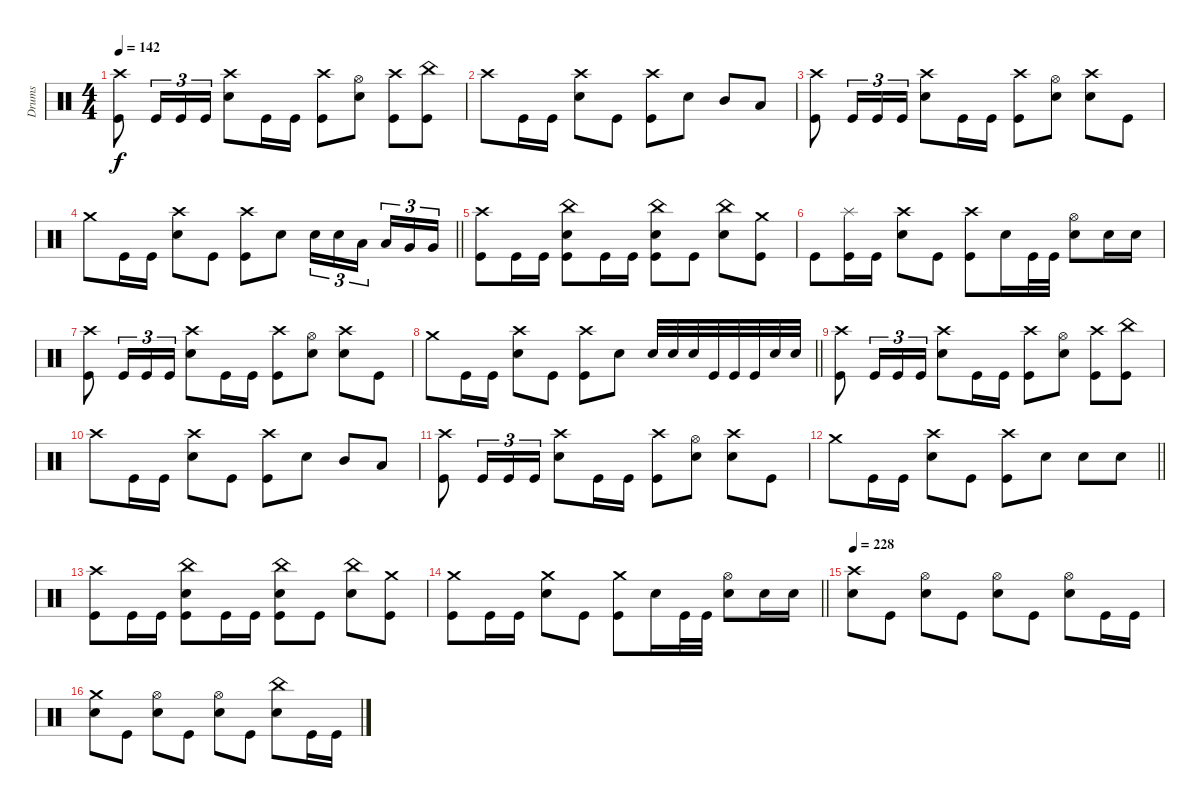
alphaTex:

\track ("Drums" "Drums") {instrument percussion}
\staff
\articulation defaults
\ts (4 4)
\section ("" "")
\tempo 142
\clef neutral
\ks c
("Crash high (hit)" "Kick (hit)").8{dy f} "Kick (hit)".16{tu (3 2)} "Kick (hit)".16{tu (3 2)} "Kick (hit)".16{tu (3 2)} ("Crash high (hit)" "Electric Snare (hit)").8 "Kick (hit)".16 "Kick (hit)".16 ("Crash high (hit)" "Kick (hit)").8 ("Hi-Hat (open)" "Electric Snare (hit)").8 ("Crash high (hit)" "Kick (hit)").8 ("China (hit)" "Kick (hit)").8 |
"Crash high (hit)".8 "Kick (hit)".16 "Kick (hit)".16 ("Crash high (hit)" "Electric Snare (hit)").8 "Kick (hit)".8 ("Crash high (hit)" "Kick (hit)").8 "Electric Snare (hit)".8 "Mid Tom (hit)".8 "Low Tom (hit)".8 |
("Crash high (hit)" "Kick (hit)").8 "Kick (hit)".16{tu (3 2)} "Kick (hit)".16{tu (3 2)} "Kick (hit)".16{tu (3 2)} ("Crash high (hit)" "Electric Snare (hit)").8 "Kick (hit)".16 "Kick (hit)".16 ("Crash high (hit)" "Kick (hit)").8 ("Hi-Hat (open)" "Electric Snare (hit)").8 ("Crash high (hit)" "Electric Snare (hit)").8 "Kick (hit)".8 |
\barLineRight lightlight "Crash medium (hit)".8 "Kick (hit)".16 "Kick (hit)".16
("Crash high (hit)" "Electric Snare (hit)").8 "Kick (hit)".8 ("Crash high (hit)" "Kick (hit)").8 "Electric Snare (hit)".8 "Electric Snare (hit)".16{tu (3 2)} "Electric Snare (hit)".16{tu (3 2)} "Low Tom (hit)".16{tu (3 2) beam splitsecondary} "Low Tom (hit)".16{tu (3 2)} "Very Low Tom (hit)".16{tu (3 2)} "Very Low Tom (hit)".16{tu (3 2)} |
("Crash high (hit)" "Kick (hit)").8 "Kick (hit)".16 "Kick (hit)".16 ("China (hit)" "Electric Snare (hit)" "Kick (hit)").8 "Kick (hit)".16 "Kick (hit)".16 ("China (hit)" "Electric Snare (hit)" "Kick (hit)").8 "Kick (hit)".8 ("China (hit)" "Electric Snare (hit)").8 ("Crash medium (hit)" "Kick (hit)").8 |
"Kick (hit)".8 ("Splash (hit)" "Kick (hit)").16 "Kick (hit)".16 ("Crash high (hit)" "Electric Snare (hit)").8 "Kick (hit)".8 ("Crash high (hit)" "Kick (hit)").8 "Electric Snare (hit)".16 "Kick (hit)".32 "Kick (hit)".32 ("Hi-Hat (open)" "Electric Snare (hit)").8 "Electric Snare (hit)".16 "Electric Snare (hit)".16 |
("Crash high (hit)" "Kick (hit)").8 "Kick (hit)".16{tu (3 2)} "Kick (hit)".16{tu (3 2)} "Kick (hit)".16{tu (3 2)} ("Crash high (hit)" "Electric Snare (hit)").8 "Kick (hit)".16 "Kick (hit)".16 ("Crash high (hit)" "Kick (hit)").8 ("Hi-Hat (open)" "Electric Snare (hit)").8 ("Crash high (hit)" "Electric Snare (hit)").8 "Kick (hit)".8 |
\barLineRight lightlight "Crash medium (hit)".8 "Kick (hit)".16 "Kick (hit)".16
("Crash high (hit)" "Electric Snare (hit)").8 "Kick (hit)".8 ("Crash high (hit)" "Kick (hit)").8 "Electric Snare (hit)".8 "Electric Snare (hit)".32 "Electric Snare (hit)".32 "Electric Snare (hit)".32 "Kick (hit)".32 "Kick (hit)".32 "Kick (hit)".32 "Electric Snare (hit)".32 "Electric Snare (hit)".32 |
("Crash high (hit)" "Kick (hit)").8 "Kick (hit)".16{tu (3 2)} "Kick (hit)".16{tu (3 2)} "Kick (hit)".16{tu (3 2)} ("Crash high (hit)" "Electric Snare (hit)").8 "Kick (hit)".16 "Kick (hit)".16 ("Crash high (hit)" "Kick (hit)").8 ("Hi-Hat (open)" "Electric Snare (hit)").8 ("Crash high (hit)" "Kick (hit)").8 ("China (hit)" "Kick (hit)").8 |
"Crash high (hit)".8 "Kick (hit)".16 "Kick (hit)".16 ("Crash high (hit)" "Electric Snare (hit)").8 "Kick (hit)".8 ("Crash high (hit)" "Kick (hit)").8 "Electric Snare (hit)".8 "Mid Tom (hit)".8 "Low Tom (hit)".8 |
("Crash high (hit)" "Kick (hit)").8 "Kick (hit)".16{tu (3 2)} "Kick (hit)".16{tu (3 2)} "Kick (hit)".16{tu (3 2)} ("Crash high (hit)" "Electric Snare (hit)").8 "Kick (hit)".16 "Kick (hit)".16 ("Crash high (hit)" "Kick (hit)").8 ("Hi-Hat (open)" "Electric Snare (hit)").8 ("Crash high (hit)" "Electric Snare (hit)").8 "Kick (hit)".8 |
\barLineRight lightlight "Crash medium (hit)".8 "Kick (hit)".16 "Kick (hit)".16
("Crash high (hit)" "Electric Snare (hit)").8 "Kick (hit)".8 ("Crash high (hit)" "Kick (hit)").8 "Electric Snare (hit)".8 "Electric Snare (hit)".8 "Electric Snare (hit)".8 |
("Crash high (hit)" "Kick (hit)").8 "Kick (hit)".16 "Kick (hit)".16 ("China (hit)" "Electric Snare (hit)" "Kick (hit)").8 "Kick (hit)".16 "Kick (hit)".16 ("China (hit)" "Electric Snare (hit)" "Kick (hit)").8 "Kick (hit)".8 ("China (hit)" "Electric Snare (hit)").8 ("Crash medium (hit)" "Kick (hit)").8 |
\barLineRight lightlight
("Crash medium (hit)" "Kick (hit)").8 "Kick (hit)".16 "Kick (hit)".16 ("Crash medium (hit)" "Electric Snare (hit)").8 "Kick (hit)".8 ("Crash medium (hit)" "Kick (hit)").8 "Electric Snare (hit)".16 "Kick (hit)".32 "Kick (hit)".32 ("Hi-Hat (open)" "Electric Snare (hit)").8 "Electric Snare (hit)".16 "Electric Snare (hit)".16 |
\section ("" "")
\tempo 228
("Crash high (hit)" "Electric Snare (hit)").8 "Kick (hit)".8 ("Hi-Hat (open)" "Electric Snare (hit)").8 "Kick (hit)".8 ("Hi-Hat (open)" "Electric Snare (hit)").8 "Kick (hit)".8 ("Hi-Hat (open)" "Electric Snare (hit)").8 "Kick (hit)".16 "Kick (hit)".16 |
("Crash medium (hit)" "Electric Snare (hit)").8 "Kick (hit)".8 ("Hi-Hat (open)" "Electric Snare (hit)").8 "Kick (hit)".8 ("Hi-Hat (open)" "Electric Snare (hit)").8 "Kick (hit)".8 ("China (hit)" "Electric Snare (hit)").8 "Kick (hit)".16 "Kick (hit)".16
